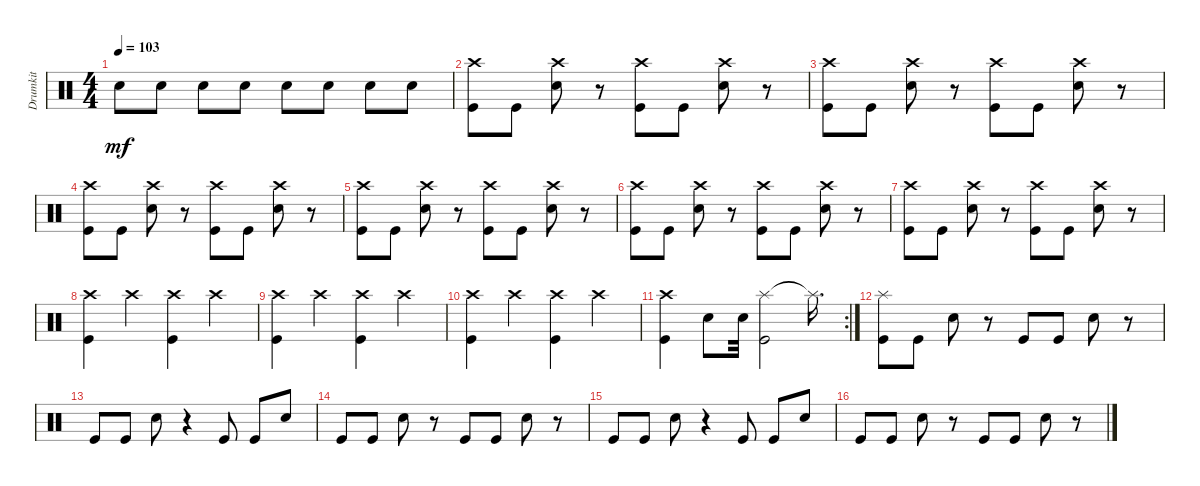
\track ("Drumkit" "Drumkit") {instrument percussion}
\staff {score}
\articulation defaults
\ts (4 4)
\tempo 103
\clef neutral
\ks c "Snare (hit) 2".8{dy mf} "Snare (hit) 2".8 "Snare (hit) 2".8 "Snare (hit) 2".8 "Snare (hit) 2".8 "Snare (hit) 2".8 "Snare (hit) 2".8 "Snare (hit) 2".8
|
("Kick (hit)" "Crash high (hit)").8 "Kick (hit)".8 ("Crash high (hit)" "Snare (hit) 2").8 r.8 ("Kick (hit)" "Crash high (hit)").8 "Kick (hit)".8 ("Crash high (hit)" "Snare (hit) 2").8 r.8 |
("Kick (hit)" "Crash high (hit)").8 "Kick (hit)".8 ("Crash high (hit)" "Snare (hit) 2").8 r.8 ("Kick (hit)" "Crash high (hit)").8 "Kick (hit)".8 ("Crash high (hit)" "Snare (hit) 2").8 r.8 |
("Kick (hit)" "Crash high (hit)").8 "Kick (hit)".8 ("Crash high (hit)" "Snare (hit) 2").8 r.8 ("Kick (hit)" "Crash high (hit)").8 "Kick (hit)".8 ("Crash high (hit)" "Snare (hit) 2").8 r.8 |
("Kick (hit)" "Crash high (hit)").8 "Kick (hit)".8 ("Crash high (hit)" "Snare (hit) 2").8 r.8 ("Kick (hit)" "Crash high (hit)").8 "Kick (hit)".8 ("Crash high (hit)" "Snare (hit) 2").8 r.8 |
("Kick (hit)" "Crash high (hit)").8 "Kick (hit)".8 ("Crash high (hit)" "Snare (hit) 2").8 r.8 ("Kick (hit)" "Crash high (hit)").8 "Kick (hit)".8 ("Crash high (hit)" "Snare (hit) 2").8 r.8 |
("Kick (hit)" "Crash high (hit)").8 "Kick (hit)".8 ("Crash high (hit)" "Snare (hit) 2").8 r.8 ("Kick (hit)" "Crash high (hit)").8 "Kick (hit)".8 ("Crash high (hit)" "Snare (hit) 2").8 r.8 |
("Crash high (hit)" "Kick (hit)").4 "Crash high (hit)".4 ("Crash high (hit)" "Kick (hit)").4 "Crash high (hit)".4 |
("Crash high (hit)" "Kick (hit)").4 "Crash high (hit)".4 ("Crash high (hit)" "Kick (hit)").4 "Crash high (hit)".4 |
("Crash high (hit)" "Kick (hit)").4 "Crash high (hit)".4 ("Crash high (hit)" "Kick (hit)").4 "Crash high (hit)".4 |
\rc 2
("Crash high (hit)" "Kick (hit)").4 "Snare (hit) 2".8 "Snare (hit) 2".32 ("Splash (hit)" "Kick (hit)").2 "Splash (hit)"{t}.16{d} |
("Kick (hit)" "Splash (hit)").8 "Kick (hit)".8 "Snare (hit) 2".8 r.8 "Kick (hit)".8 "Kick (hit)".8 "Snare (hit) 2".8 r.8 |
"Kick (hit)".8 "Kick (hit)".8 "Snare (hit) 2".8 r.4 "Kick (hit)".8 "Kick (hit)".8 "Snare (hit) 2".8 |
"Kick (hit)".8 "Kick (hit)".8 "Snare (hit) 2".8 r.8 "Kick (hit)".8 "Kick (hit)".8 "Snare (hit) 2".8 r.8 |
"Kick (hit)".8 "Kick (hit)".8 "Snare (hit) 2".8 r.4 "Kick (hit)".8 "Kick (hit)".8 "Snare (hit) 2".8 |
"Kick (hit)".8 "Kick (hit)".8 "Snare (hit) 2".8 r.8 "Kick (hit)".8 "Kick (hit)".8 "Snare (hit) 2".8 r.8
